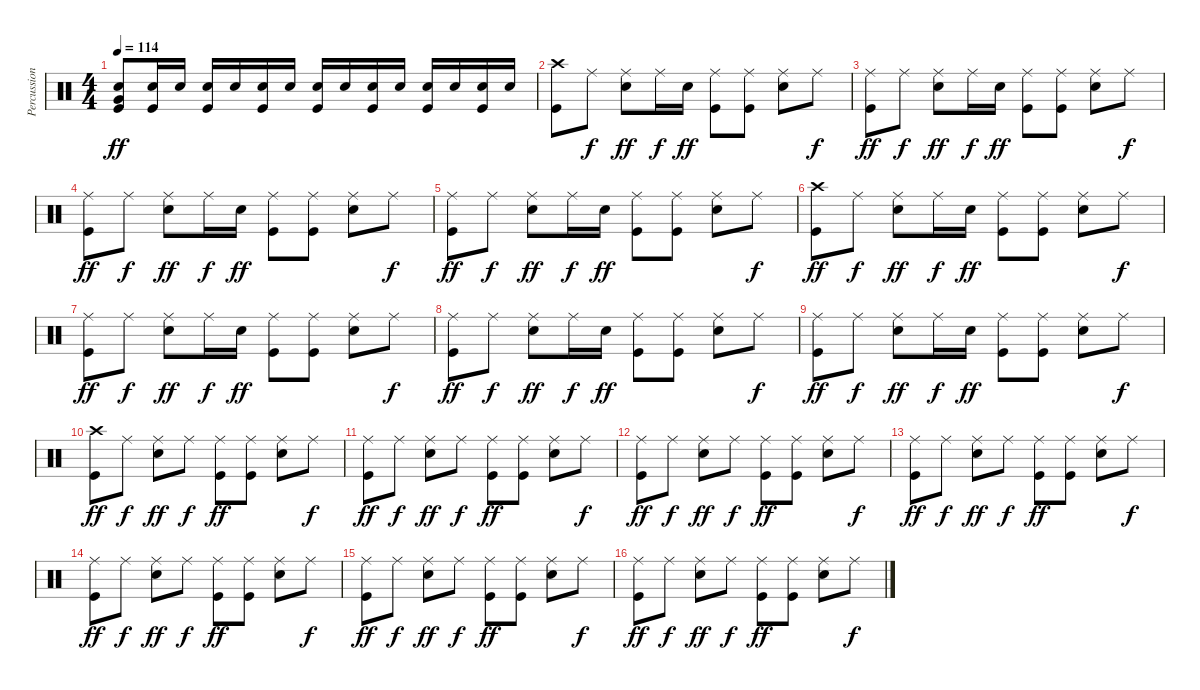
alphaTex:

\track ("Percussion" "Percussion") {instrument percussion}
\staff {score}
\articulation defaults
\ts (4 4)
\tempo 114
\clef neutral
\ks c
("Snare (hit) 2" "Very Low Tom (hit)" "Kick (hit)").8{dy ff} ("Snare (hit) 2" "Kick (hit)").16 "Snare (hit) 2".16 ("Snare (hit) 2" "Kick (hit)").16 "Snare (hit) 2".16 ("Snare (hit) 2" "Kick (hit)").16 "Snare (hit) 2".16 ("Snare (hit) 2" "Kick (hit)").16 "Snare (hit) 2".16 ("Snare (hit) 2" "Kick (hit)").16 "Snare (hit) 2".16 ("Snare (hit) 2" "Kick (hit)").16 "Snare (hit) 2".16 ("Snare (hit) 2" "Kick (hit)").16 "Snare (hit) 2".16 |
("Crash high (hit)" "Kick (hit)").8 "Ride (middle)".8{dy f} ("Ride (middle)" "Snare (hit) 2").8{dy ff} "Ride (middle)".16{dy f} "Snare (hit) 2".16{dy ff} ("Ride (middle)" "Kick (hit)").8 ("Ride (middle)" "Kick (hit)").8 ("Ride (middle)" "Snare (hit) 2").8 "Ride (middle)".8{dy f} |
("Ride (middle)" "Kick (hit)").8{dy ff} "Ride (middle)".8{dy f} ("Ride (middle)" "Snare (hit) 2").8{dy ff} "Ride (middle)".16{dy f} "Snare (hit) 2".16{dy ff} ("Ride (middle)" "Kick (hit)").8 ("Ride (middle)" "Kick (hit)").8 ("Ride (middle)" "Snare (hit) 2").8 "Ride (middle)".8{dy f} |
("Ride (middle)" "Kick (hit)").8{dy ff} "Ride (middle)".8{dy f} ("Ride (middle)" "Snare (hit) 2").8{dy ff} "Ride (middle)".16{dy f} "Snare (hit) 2".16{dy ff} ("Ride (middle)" "Kick (hit)").8 ("Ride (middle)" "Kick (hit)").8 ("Ride (middle)" "Snare (hit) 2").8 "Ride (middle)".8{dy f} |
("Ride (middle)" "Kick (hit)").8{dy ff} "Ride (middle)".8{dy f} ("Ride (middle)" "Snare (hit) 2").8{dy ff} "Ride (middle)".16{dy f} "Snare (hit) 2".16{dy ff} ("Ride (middle)" "Kick (hit)").8 ("Ride (middle)" "Kick (hit)").8 ("Ride (middle)" "Snare (hit) 2").8 "Ride (middle)".8{dy f} |
("Crash high (hit)" "Kick (hit)").8{dy ff} "Ride (middle)".8{dy f} ("Ride (middle)" "Snare (hit) 2").8{dy ff} "Ride (middle)".16{dy f} "Snare (hit) 2".16{dy ff} ("Ride (middle)" "Kick (hit)").8 ("Ride (middle)" "Kick (hit)").8 ("Ride (middle)" "Snare (hit) 2").8 "Ride (middle)".8{dy f} |
("Ride (middle)" "Kick (hit)").8{dy ff} "Ride (middle)".8{dy f} ("Ride (middle)" "Snare (hit) 2").8{dy ff} "Ride (middle)".16{dy f} "Snare (hit) 2".16{dy ff} ("Ride (middle)" "Kick (hit)").8 ("Ride (middle)" "Kick (hit)").8 ("Ride (middle)" "Snare (hit) 2").8 "Ride (middle)".8{dy f} |
("Ride (middle)" "Kick (hit)").8{dy ff} "Ride (middle)".8{dy f} ("Ride (middle)" "Snare (hit) 2").8{dy ff} "Ride (middle)".16{dy f} "Snare (hit) 2".16{dy ff} ("Ride (middle)" "Kick (hit)").8 ("Ride (middle)" "Kick (hit)").8 ("Ride (middle)" "Snare (hit) 2").8 "Ride (middle)".8{dy f} |
("Ride (middle)" "Kick (hit)").8{dy ff} "Ride (middle)".8{dy f} ("Ride (middle)" "Snare (hit) 2").8{dy ff} "Ride (middle)".16{dy f} "Snare (hit) 2".16{dy ff} ("Ride (middle)" "Kick (hit)").8 ("Ride (middle)" "Kick (hit)").8 ("Ride (middle)" "Snare (hit) 2").8 "Ride (middle)".8{dy f} |
("Crash high (hit)" "Kick (hit)").8{dy ff} "Ride (middle)".8{dy f} ("Ride (middle)" "Snare (hit) 2").8{dy ff} "Ride (middle)".8{dy f} ("Ride (middle)" "Kick (hit)").8{dy ff} ("Ride (middle)" "Kick (hit)").8 ("Ride (middle)" "Snare (hit) 2").8 "Ride (middle)".8{dy f} |
("Ride (middle)" "Kick (hit)").8{dy ff} "Ride (middle)".8{dy f} ("Ride (middle)" "Snare (hit) 2").8{dy ff} "Ride (middle)".8{dy f} ("Ride (middle)" "Kick (hit)").8{dy ff} ("Ride (middle)" "Kick (hit)").8 ("Ride (middle)" "Snare (hit) 2").8 "Ride (middle)".8{dy f} |
("Ride (middle)" "Kick (hit)").8{dy ff} "Ride (middle)".8{dy f} ("Ride (middle)" "Snare (hit) 2").8{dy ff} "Ride (middle)".8{dy f} ("Ride (middle)" "Kick (hit)").8{dy ff} ("Ride (middle)" "Kick (hit)").8 ("Ride (middle)" "Snare (hit) 2").8 "Ride (middle)".8{dy f} |
("Ride (middle)" "Kick (hit)").8{dy ff} "Ride (middle)".8{dy f} ("Ride (middle)" "Snare (hit) 2").8{dy ff} "Ride (middle)".8{dy f} ("Ride (middle)" "Kick (hit)").8{dy ff} ("Ride (middle)" "Kick (hit)").8 ("Ride (middle)" "Snare (hit) 2").8 "Ride (middle)".8{dy f} |
("Ride (middle)" "Kick (hit)").8{dy ff} "Ride (middle)".8{dy f} ("Ride (middle)" "Snare (hit) 2").8{dy ff} "Ride (middle)".8{dy f} ("Ride (middle)" "Kick (hit)").8{dy ff} ("Ride (middle)" "Kick (hit)").8 ("Ride (middle)" "Snare (hit) 2").8 "Ride (middle)".8{dy f} |
("Ride (middle)" "Kick (hit)").8{dy ff} "Ride (middle)".8{dy f} ("Ride (middle)" "Snare (hit) 2").8{dy ff} "Ride (middle)".8{dy f} ("Ride (middle)" "Kick (hit)").8{dy ff} ("Ride (middle)" "Kick (hit)").8 ("Ride (middle)" "Snare (hit) 2").8 "Ride (middle)".8{dy f} |
("Ride (middle)" "Kick (hit)").8{dy ff} "Ride (middle)".8{dy f} ("Ride (middle)" "Snare (hit) 2").8{dy ff} "Ride (middle)".8{dy f} ("Ride (middle)" "Kick (hit)").8{dy ff} ("Ride (middle)" "Kick (hit)").8 ("Ride (middle)" "Snare (hit) 2").8 "Ride (middle)".8{dy f}
